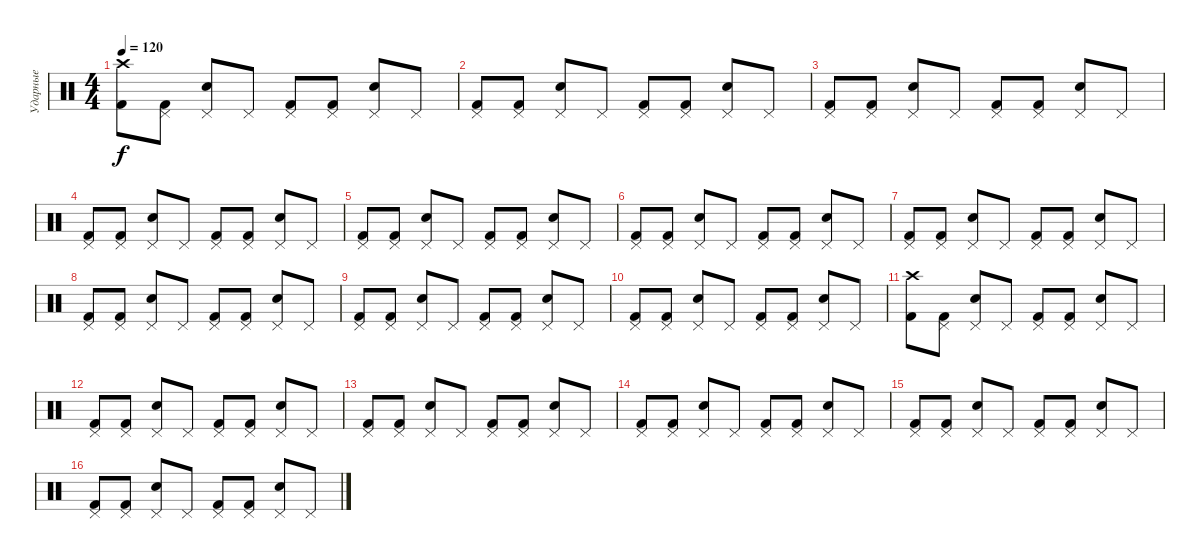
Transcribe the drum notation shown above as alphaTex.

\track ("Ударные" "Ударные") {instrument percussion}
\staff {score}
\articulation defaults
\ts (4 4)
\tempo 120
\clef neutral
\ks c
("Crash high (hit)" "Kick (hit) 2").8{dy f} ("Pedal Hi-Hat (hit)" "Kick (hit) 2").8 ("Pedal Hi-Hat (hit)" "Snare (hit) 2").8 "Pedal Hi-Hat (hit)".8 ("Pedal Hi-Hat (hit)" "Kick (hit) 2").8 ("Pedal Hi-Hat (hit)" "Kick (hit) 2").8 ("Pedal Hi-Hat (hit)" "Snare (hit) 2").8 "Pedal Hi-Hat (hit)".8 |
("Pedal Hi-Hat (hit)" "Kick (hit) 2").8 ("Pedal Hi-Hat (hit)" "Kick (hit) 2").8 ("Pedal Hi-Hat (hit)" "Snare (hit) 2").8 "Pedal Hi-Hat (hit)".8 ("Pedal Hi-Hat (hit)" "Kick (hit) 2").8 ("Pedal Hi-Hat (hit)" "Kick (hit) 2").8 ("Pedal Hi-Hat (hit)" "Snare (hit) 2").8 "Pedal Hi-Hat (hit)".8 |
("Pedal Hi-Hat (hit)" "Kick (hit) 2").8 ("Pedal Hi-Hat (hit)" "Kick (hit) 2").8 ("Pedal Hi-Hat (hit)" "Snare (hit) 2").8 "Pedal Hi-Hat (hit)".8 ("Pedal Hi-Hat (hit)" "Kick (hit) 2").8 ("Pedal Hi-Hat (hit)" "Kick (hit) 2").8 ("Pedal Hi-Hat (hit)" "Snare (hit) 2").8 "Pedal Hi-Hat (hit)".8 |
("Pedal Hi-Hat (hit)" "Kick (hit) 2").8 ("Pedal Hi-Hat (hit)" "Kick (hit) 2").8 ("Pedal Hi-Hat (hit)" "Snare (hit) 2").8 "Pedal Hi-Hat (hit)".8 ("Pedal Hi-Hat (hit)" "Kick (hit) 2").8 ("Pedal Hi-Hat (hit)" "Kick (hit) 2").8 ("Pedal Hi-Hat (hit)" "Snare (hit) 2").8 "Pedal Hi-Hat (hit)".8 |
("Pedal Hi-Hat (hit)" "Kick (hit) 2").8 ("Pedal Hi-Hat (hit)" "Kick (hit) 2").8 ("Pedal Hi-Hat (hit)" "Snare (hit) 2").8 "Pedal Hi-Hat (hit)".8 ("Pedal Hi-Hat (hit)" "Kick (hit) 2").8 ("Pedal Hi-Hat (hit)" "Kick (hit) 2").8 ("Pedal Hi-Hat (hit)" "Snare (hit) 2").8 "Pedal Hi-Hat (hit)".8 |
("Pedal Hi-Hat (hit)" "Kick (hit) 2").8 ("Pedal Hi-Hat (hit)" "Kick (hit) 2").8 ("Pedal Hi-Hat (hit)" "Snare (hit) 2").8 "Pedal Hi-Hat (hit)".8 ("Pedal Hi-Hat (hit)" "Kick (hit) 2").8 ("Pedal Hi-Hat (hit)" "Kick (hit) 2").8 ("Pedal Hi-Hat (hit)" "Snare (hit) 2").8 "Pedal Hi-Hat (hit)".8 |
("Pedal Hi-Hat (hit)" "Kick (hit) 2").8 ("Pedal Hi-Hat (hit)" "Kick (hit) 2").8 ("Pedal Hi-Hat (hit)" "Snare (hit) 2").8 "Pedal Hi-Hat (hit)".8 ("Pedal Hi-Hat (hit)" "Kick (hit) 2").8 ("Pedal Hi-Hat (hit)" "Kick (hit) 2").8 ("Pedal Hi-Hat (hit)" "Snare (hit) 2").8 "Pedal Hi-Hat (hit)".8 |
("Pedal Hi-Hat (hit)" "Kick (hit) 2").8 ("Pedal Hi-Hat (hit)" "Kick (hit) 2").8 ("Pedal Hi-Hat (hit)" "Snare (hit) 2").8 "Pedal Hi-Hat (hit)".8 ("Pedal Hi-Hat (hit)" "Kick (hit) 2").8 ("Pedal Hi-Hat (hit)" "Kick (hit) 2").8 ("Pedal Hi-Hat (hit)" "Snare (hit) 2").8 "Pedal Hi-Hat (hit)".8 |
("Pedal Hi-Hat (hit)" "Kick (hit) 2").8 ("Pedal Hi-Hat (hit)" "Kick (hit) 2").8 ("Pedal Hi-Hat (hit)" "Snare (hit) 2").8 "Pedal Hi-Hat (hit)".8 ("Pedal Hi-Hat (hit)" "Kick (hit) 2").8 ("Pedal Hi-Hat (hit)" "Kick (hit) 2").8 ("Pedal Hi-Hat (hit)" "Snare (hit) 2").8 "Pedal Hi-Hat (hit)".8 |
("Pedal Hi-Hat (hit)" "Kick (hit) 2").8 ("Pedal Hi-Hat (hit)" "Kick (hit) 2").8 ("Pedal Hi-Hat (hit)" "Snare (hit) 2").8 "Pedal Hi-Hat (hit)".8 ("Pedal Hi-Hat (hit)" "Kick (hit) 2").8 ("Pedal Hi-Hat (hit)" "Kick (hit) 2").8 ("Pedal Hi-Hat (hit)" "Snare (hit) 2").8 "Pedal Hi-Hat (hit)".8 |
("Crash high (hit)" "Kick (hit) 2").8 ("Pedal Hi-Hat (hit)" "Kick (hit) 2").8 ("Pedal Hi-Hat (hit)" "Snare (hit) 2").8 "Pedal Hi-Hat (hit)".8 ("Pedal Hi-Hat (hit)" "Kick (hit) 2").8 ("Pedal Hi-Hat (hit)" "Kick (hit) 2").8 ("Pedal Hi-Hat (hit)" "Snare (hit) 2").8 "Pedal Hi-Hat (hit)".8 |
("Pedal Hi-Hat (hit)" "Kick (hit) 2").8 ("Pedal Hi-Hat (hit)" "Kick (hit) 2").8 ("Pedal Hi-Hat (hit)" "Snare (hit) 2").8 "Pedal Hi-Hat (hit)".8 ("Pedal Hi-Hat (hit)" "Kick (hit) 2").8 ("Pedal Hi-Hat (hit)" "Kick (hit) 2").8 ("Pedal Hi-Hat (hit)" "Snare (hit) 2").8 "Pedal Hi-Hat (hit)".8 |
("Pedal Hi-Hat (hit)" "Kick (hit) 2").8 ("Pedal Hi-Hat (hit)" "Kick (hit) 2").8 ("Pedal Hi-Hat (hit)" "Snare (hit) 2").8 "Pedal Hi-Hat (hit)".8 ("Pedal Hi-Hat (hit)" "Kick (hit) 2").8 ("Pedal Hi-Hat (hit)" "Kick (hit) 2").8 ("Pedal Hi-Hat (hit)" "Snare (hit) 2").8 "Pedal Hi-Hat (hit)".8 |
("Pedal Hi-Hat (hit)" "Kick (hit) 2").8 ("Pedal Hi-Hat (hit)" "Kick (hit) 2").8 ("Pedal Hi-Hat (hit)" "Snare (hit) 2").8 "Pedal Hi-Hat (hit)".8 ("Pedal Hi-Hat (hit)" "Kick (hit) 2").8 ("Pedal Hi-Hat (hit)" "Kick (hit) 2").8 ("Pedal Hi-Hat (hit)" "Snare (hit) 2").8 "Pedal Hi-Hat (hit)".8 |
("Pedal Hi-Hat (hit)" "Kick (hit) 2").8 ("Pedal Hi-Hat (hit)" "Kick (hit) 2").8 ("Pedal Hi-Hat (hit)" "Snare (hit) 2").8 "Pedal Hi-Hat (hit)".8 ("Pedal Hi-Hat (hit)" "Kick (hit) 2").8 ("Pedal Hi-Hat (hit)" "Kick (hit) 2").8 ("Pedal Hi-Hat (hit)" "Snare (hit) 2").8 "Pedal Hi-Hat (hit)".8 |
("Pedal Hi-Hat (hit)" "Kick (hit) 2").8 ("Pedal Hi-Hat (hit)" "Kick (hit) 2").8 ("Pedal Hi-Hat (hit)" "Snare (hit) 2").8 "Pedal Hi-Hat (hit)".8 ("Pedal Hi-Hat (hit)" "Kick (hit) 2").8 ("Pedal Hi-Hat (hit)" "Kick (hit) 2").8 ("Pedal Hi-Hat (hit)" "Snare (hit) 2").8 "Pedal Hi-Hat (hit)".8
